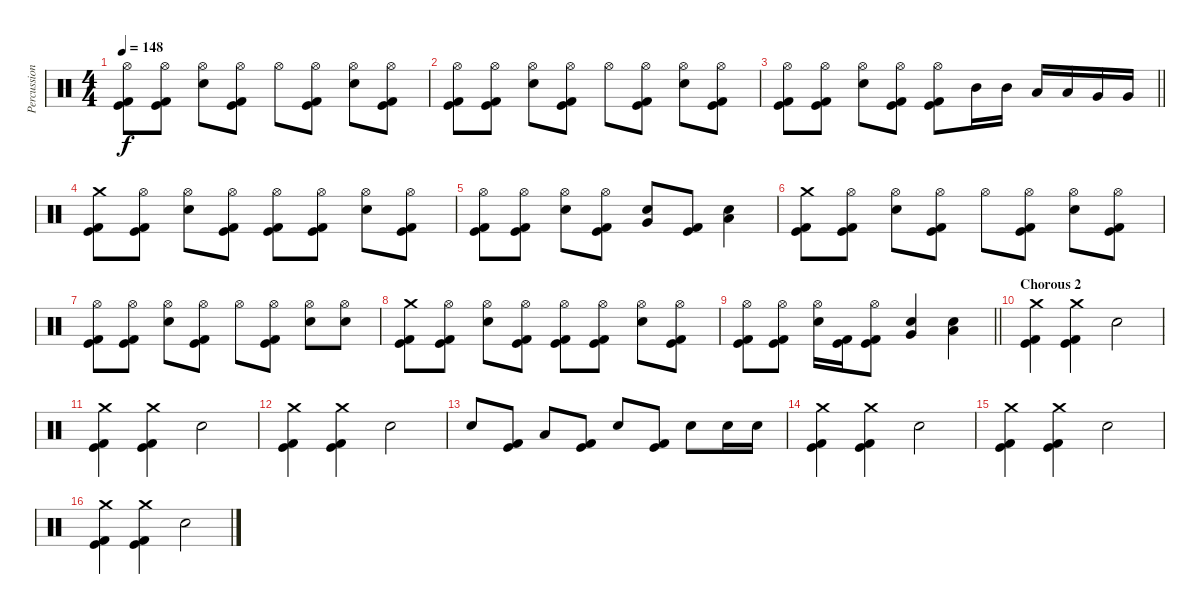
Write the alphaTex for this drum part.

\track ("Percussion" "Percussion") {instrument percussion}
\staff {score}
\articulation defaults
\ts (4 4)
\tempo 148
\clef neutral
\ks c
("Hi-Hat (open)" "Kick (hit)" "Kick (hit) 2").8{dy f} ("Hi-Hat (open)" "Kick (hit)" "Kick (hit) 2").8 ("Hi-Hat (open)" "Electric Snare (hit)").8 ("Hi-Hat (open)" "Kick (hit)" "Kick (hit) 2").8 "Hi-Hat (open)".8 ("Hi-Hat (open)" "Kick (hit)" "Kick (hit) 2").8 ("Hi-Hat (open)" "Electric Snare (hit)").8 ("Hi-Hat (open)" "Kick (hit)" "Kick (hit) 2").8 |
("Hi-Hat (open)" "Kick (hit)" "Kick (hit) 2").8 ("Hi-Hat (open)" "Kick (hit)" "Kick (hit) 2").8 ("Hi-Hat (open)" "Electric Snare (hit)").8 ("Hi-Hat (open)" "Kick (hit)" "Kick (hit) 2").8 "Hi-Hat (open)".8 ("Hi-Hat (open)" "Kick (hit)" "Kick (hit) 2").8 ("Hi-Hat (open)" "Electric Snare (hit)").8 ("Hi-Hat (open)" "Kick (hit)" "Kick (hit) 2").8 |
\barLineRight lightlight
("Hi-Hat (open)" "Kick (hit)" "Kick (hit) 2").8 ("Hi-Hat (open)" "Kick (hit)" "Kick (hit) 2").8 ("Hi-Hat (open)" "Electric Snare (hit)").8 ("Hi-Hat (open)" "Kick (hit)" "Kick (hit) 2").8 ("Hi-Hat (open)" "Kick (hit)" "Kick (hit) 2").8 "Mid Tom (hit)".16 "Mid Tom (hit)".16 "Low Tom (hit)".16 "Low Tom (hit)".16 "Very Low Tom (hit)".16 "Very Low Tom (hit)".16 |
\section ("" "")
("Crash medium (hit)" "Kick (hit)" "Kick (hit) 2").8 ("Hi-Hat (open)" "Kick (hit)" "Kick (hit) 2").8 ("Hi-Hat (open)" "Electric Snare (hit)").8 ("Hi-Hat (open)" "Kick (hit)" "Kick (hit) 2").8 ("Hi-Hat (open)" "Kick (hit)" "Kick (hit) 2").8 ("Hi-Hat (open)" "Kick (hit)" "Kick (hit) 2").8 ("Hi-Hat (open)" "Electric Snare (hit)").8 ("Hi-Hat (open)" "Kick (hit)" "Kick (hit) 2").8 |
("Hi-Hat (open)" "Kick (hit)" "Kick (hit) 2").8 ("Hi-Hat (open)" "Kick (hit)" "Kick (hit) 2").8 ("Hi-Hat (open)" "Electric Snare (hit)").8 ("Hi-Hat (open)" "Kick (hit)" "Kick (hit) 2").8 ("Electric Snare (hit)" "Very Low Tom (hit)").8 ("Kick (hit)" "Kick (hit) 2").8 ("Electric Snare (hit)" "Low Floor Tom (hit)").4 |
("Crash medium (hit)" "Kick (hit)" "Kick (hit) 2").8 ("Hi-Hat (open)" "Kick (hit)" "Kick (hit) 2").8 ("Hi-Hat (open)" "Electric Snare (hit)").8 ("Hi-Hat (open)" "Kick (hit)" "Kick (hit) 2").8 "Hi-Hat (open)".8 ("Hi-Hat (open)" "Kick (hit)" "Kick (hit) 2").8 ("Hi-Hat (open)" "Electric Snare (hit)").8 ("Hi-Hat (open)" "Kick (hit)" "Kick (hit) 2").8 |
("Hi-Hat (open)" "Kick (hit)" "Kick (hit) 2").8 ("Hi-Hat (open)" "Kick (hit)" "Kick (hit) 2").8 ("Hi-Hat (open)" "Electric Snare (hit)").8 ("Hi-Hat (open)" "Kick (hit)" "Kick (hit) 2").8 "Hi-Hat (open)".8 ("Hi-Hat (open)" "Kick (hit)" "Kick (hit) 2").8 ("Hi-Hat (open)" "Electric Snare (hit)").8 ("Hi-Hat (open)" "Electric Snare (hit)").8 |
("Crash medium (hit)" "Kick (hit)" "Kick (hit) 2").8 ("Hi-Hat (open)" "Kick (hit)" "Kick (hit) 2").8 ("Hi-Hat (open)" "Electric Snare (hit)").8 ("Hi-Hat (open)" "Kick (hit)" "Kick (hit) 2").8 ("Hi-Hat (open)" "Kick (hit)" "Kick (hit) 2").8 ("Hi-Hat (open)" "Kick (hit)" "Kick (hit) 2").8 ("Hi-Hat (open)" "Electric Snare (hit)").8 ("Hi-Hat (open)" "Kick (hit)" "Kick (hit) 2").8 |
\barLineRight lightlight
("Hi-Hat (open)" "Kick (hit)" "Kick (hit) 2").8 ("Hi-Hat (open)" "Kick (hit)" "Kick (hit) 2").8 ("Hi-Hat (open)" "Electric Snare (hit)").16 ("Kick (hit)" "Kick (hit) 2").16 ("Hi-Hat (open)" "Kick (hit)" "Kick (hit) 2").8 ("Electric Snare (hit)" "Very Low Tom (hit)").4 ("Electric Snare (hit)" "Low Floor Tom (hit)").4 |
\section ("" "Chorous 2")
("Crash medium (hit)" "Kick (hit)" "Kick (hit) 2").4 ("Crash medium (hit)" "Kick (hit)" "Kick (hit) 2").4 "Electric Snare (hit)".2 |
("Crash medium (hit)" "Kick (hit)" "Kick (hit) 2").4 ("Crash medium (hit)" "Kick (hit)" "Kick (hit) 2").4 "Electric Snare (hit)".2 |
("Crash medium (hit)" "Kick (hit)" "Kick (hit) 2").4 ("Crash medium (hit)" "Kick (hit)" "Kick (hit) 2").4 "Electric Snare (hit)".2 |
"Electric Snare (hit)".8 ("Kick (hit)" "Kick (hit) 2").8 "Low Floor Tom (hit)".8 ("Kick (hit)" "Kick (hit) 2").8 "Electric Snare (hit)".8 ("Kick (hit)" "Kick (hit) 2").8 "Electric Snare (hit)".8 "Electric Snare (hit)".16 "Electric Snare (hit)".16 |
("Crash medium (hit)" "Kick (hit)" "Kick (hit) 2").4 ("Crash medium (hit)" "Kick (hit)" "Kick (hit) 2").4 "Electric Snare (hit)".2 |
("Crash medium (hit)" "Kick (hit)" "Kick (hit) 2").4 ("Crash medium (hit)" "Kick (hit)" "Kick (hit) 2").4 "Electric Snare (hit)".2 |
("Crash medium (hit)" "Kick (hit)" "Kick (hit) 2").4 ("Crash medium (hit)" "Kick (hit)" "Kick (hit) 2").4 "Electric Snare (hit)".2
